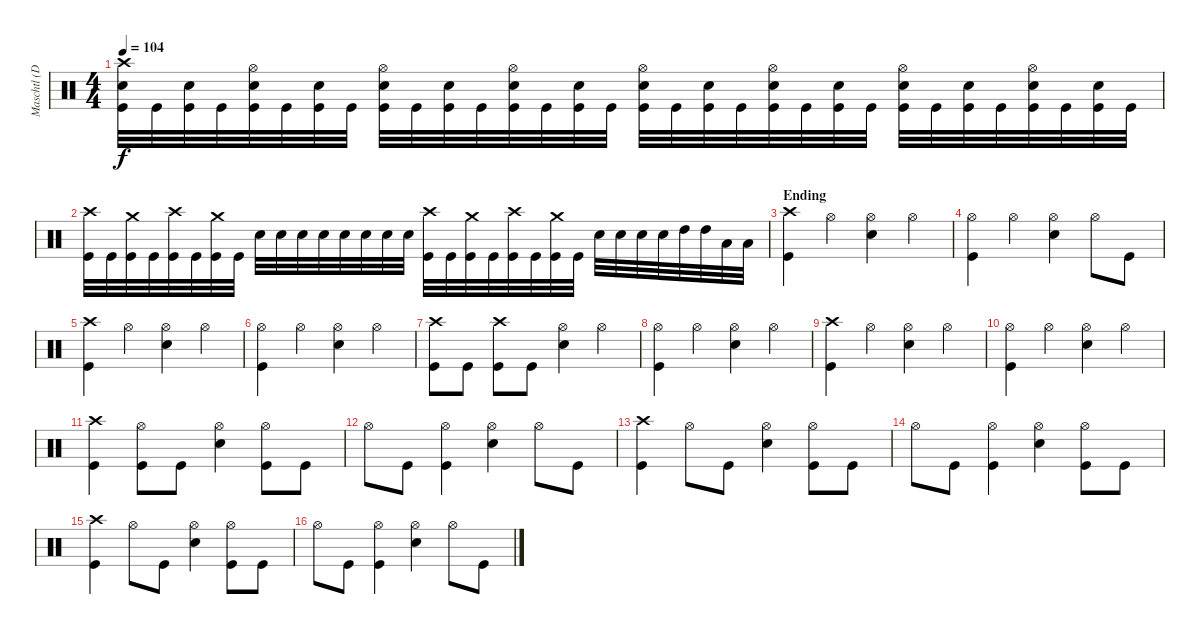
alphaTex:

\track ("Maschtl (Drums)" "Maschtl (D") {instrument percussion}
\staff {score}
\articulation defaults
\ts (4 4)
\tempo 104
\clef neutral
\ks c
("Crash high (hit)" "Electric Snare (hit)" "Kick (hit)").32{dy f} "Kick (hit)".32 ("Electric Snare (hit)" "Kick (hit)").32 "Kick (hit)".32 ("Hi-Hat (open)" "Electric Snare (hit)" "Kick (hit)").32 "Kick (hit)".32 ("Electric Snare (hit)" "Kick (hit)").32 "Kick (hit)".32 ("Hi-Hat (open)" "Electric Snare (hit)" "Kick (hit)").32 "Kick (hit)".32 ("Electric Snare (hit)" "Kick (hit)").32 "Kick (hit)".32 ("Hi-Hat (open)" "Electric Snare (hit)" "Kick (hit)").32 "Kick (hit)".32 ("Electric Snare (hit)" "Kick (hit)").32 "Kick (hit)".32 ("Hi-Hat (open)" "Electric Snare (hit)" "Kick (hit)").32 "Kick (hit)".32 ("Electric Snare (hit)" "Kick (hit)").32 "Kick (hit)".32 ("Hi-Hat (open)" "Electric Snare (hit)" "Kick (hit)").32 "Kick (hit)".32 ("Electric Snare (hit)" "Kick (hit)").32 "Kick (hit)".32 ("Hi-Hat (open)" "Electric Snare (hit)" "Kick (hit)").32 "Kick (hit)".32 ("Electric Snare (hit)" "Kick (hit)").32 "Kick (hit)".32 ("Hi-Hat (open)" "Electric Snare (hit)" "Kick (hit)").32 "Kick (hit)".32 ("Electric Snare (hit)" "Kick (hit)").32 "Kick (hit)".32 |
("Crash high (hit)" "Kick (hit)").32 "Kick (hit)".32 ("Crash medium (hit)" "Kick (hit)").32 "Kick (hit)".32 ("Crash high (hit)" "Kick (hit)").32 "Kick (hit)".32 ("Crash medium (hit)" "Kick (hit)").32 "Kick (hit)".32 "Electric Snare (hit)".32 "Electric Snare (hit)".32 "Electric Snare (hit)".32 "Electric Snare (hit)".32 "Electric Snare (hit)".32 "Electric Snare (hit)".32 "Electric Snare (hit)".32 "Electric Snare (hit)".32 ("Crash high (hit)" "Kick (hit)").32 "Kick (hit)".32 ("Crash medium (hit)" "Kick (hit)").32 "Kick (hit)".32 ("Crash high (hit)" "Kick (hit)").32 "Kick (hit)".32 ("Crash medium (hit)" "Kick (hit)").32 "Kick (hit)".32 "Electric Snare (hit)".32 "Electric Snare (hit)".32 "Electric Snare (hit)".32 "Electric Snare (hit)".32 "High Tom (hit)".32 "High Tom (hit)".32 "Low Tom (hit)".32 "Low Tom (hit)".32 |
\section ("" "Ending")
("Crash high (hit)" "Kick (hit)").4 "Hi-Hat (open)".4 ("Hi-Hat (open)" "Electric Snare (hit)").4 "Hi-Hat (open)".4 |
("Hi-Hat (open)" "Kick (hit)").4 "Hi-Hat (open)".4 ("Hi-Hat (open)" "Electric Snare (hit)").4 "Hi-Hat (open)".8 "Kick (hit)".8 |
("Crash high (hit)" "Kick (hit)").4 "Hi-Hat (open)".4 ("Hi-Hat (open)" "Electric Snare (hit)").4 "Hi-Hat (open)".4 |
("Hi-Hat (open)" "Kick (hit)").4 "Hi-Hat (open)".4 ("Hi-Hat (open)" "Electric Snare (hit)").4 "Hi-Hat (open)".4 |
("Crash high (hit)" "Kick (hit)").8 "Kick (hit)".8 ("Crash high (hit)" "Kick (hit)").8 "Kick (hit)".8 ("Hi-Hat (open)" "Electric Snare (hit)").4 "Hi-Hat (open)".4 |
("Hi-Hat (open)" "Kick (hit)").4 "Hi-Hat (open)".4 ("Hi-Hat (open)" "Electric Snare (hit)").4 "Hi-Hat (open)".4 |
("Crash high (hit)" "Kick (hit)").4 "Hi-Hat (open)".4 ("Hi-Hat (open)" "Electric Snare (hit)").4 "Hi-Hat (open)".4 |
("Hi-Hat (open)" "Kick (hit)").4 "Hi-Hat (open)".4 ("Hi-Hat (open)" "Electric Snare (hit)").4 "Hi-Hat (open)".4 |
("Crash high (hit)" "Kick (hit)").4 ("Hi-Hat (open)" "Kick (hit)").8 "Kick (hit)".8 ("Hi-Hat (open)" "Electric Snare (hit)").4 ("Hi-Hat (open)" "Kick (hit)").8 "Kick (hit)".8 |
"Hi-Hat (open)".8 "Kick (hit)".8 ("Hi-Hat (open)" "Kick (hit)").4 ("Hi-Hat (open)" "Electric Snare (hit)").4 "Hi-Hat (open)".8 "Kick (hit)".8 |
("Crash high (hit)" "Kick (hit)").4 "Hi-Hat (open)".8 "Kick (hit)".8 ("Hi-Hat (open)" "Electric Snare (hit)").4 ("Hi-Hat (open)" "Kick (hit)").8 "Kick (hit)".8 |
"Hi-Hat (open)".8 "Kick (hit)".8 ("Hi-Hat (open)" "Kick (hit)").4 ("Hi-Hat (open)" "Electric Snare (hit)").4 ("Hi-Hat (open)" "Kick (hit)").8 "Kick (hit)".8 |
("Crash high (hit)" "Kick (hit)").4 "Hi-Hat (open)".8 "Kick (hit)".8 ("Hi-Hat (open)" "Electric Snare (hit)").4 ("Hi-Hat (open)" "Kick (hit)").8 "Kick (hit)".8 |
"Hi-Hat (open)".8 "Kick (hit)".8 ("Hi-Hat (open)" "Kick (hit)").4 ("Hi-Hat (open)" "Electric Snare (hit)").4 "Hi-Hat (open)".8 "Kick (hit)".8
